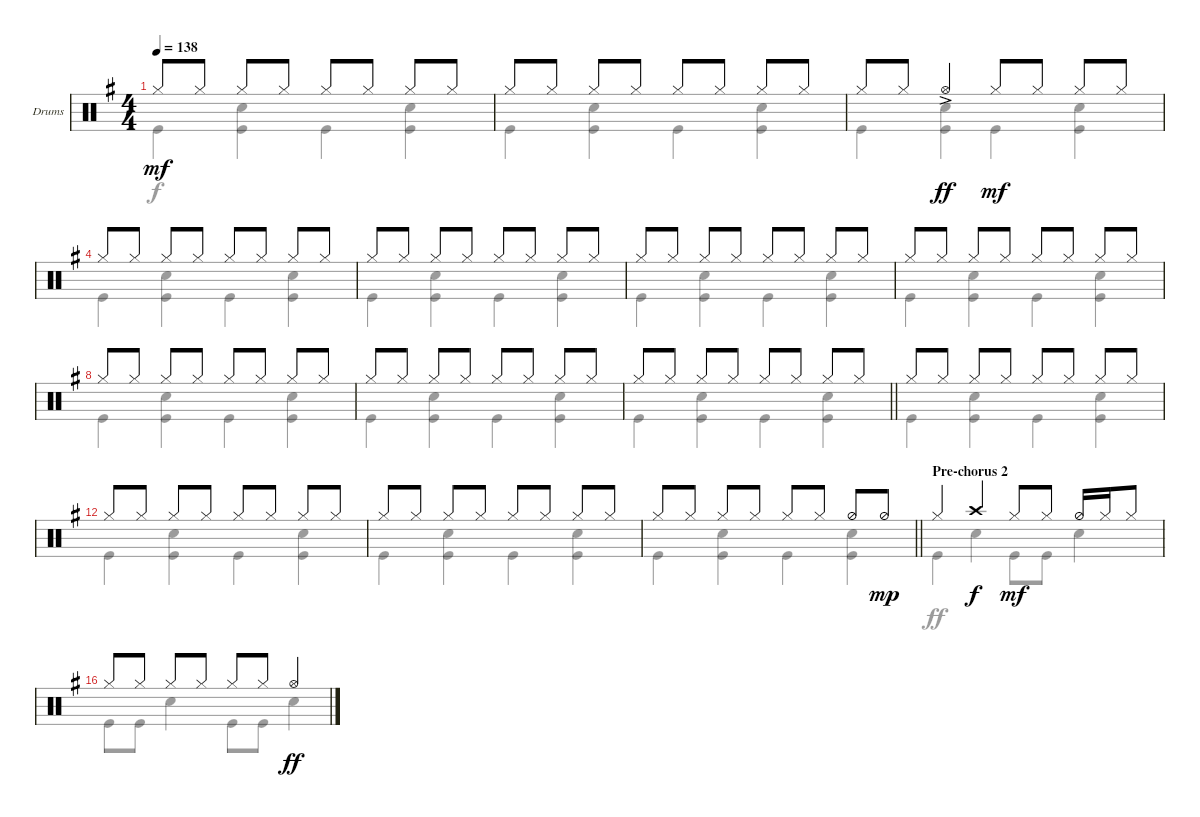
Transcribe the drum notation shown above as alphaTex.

\defaultSystemsLayout 4
\bracketExtendMode groupsimilarinstruments
\useSystemSignSeparator
\multiBarRest
\multiTrackTrackNamePolicy allsystems
\firstSystemTrackNameMode fullname
\firstSystemTrackNameOrientation horizontal
\otherSystemsTrackNameOrientation horizontal
\defaultBarNumberDisplay FirstOfSystem
\track ("Drums" "Dr.") {multiBarRest instrument percussion}
\staff {score}
\articulation defaults
\voice
\ts (4 4)
\tempo 138
\clef neutral
\ks g "Hi-Hat (closed)".8{dy mf} "Hi-Hat (closed)".8 "Hi-Hat (closed)".8 "Hi-Hat (closed)".8 "Hi-Hat (closed)".8 "Hi-Hat (closed)".8 "Hi-Hat (closed)".8 "Hi-Hat (closed)".8
|
"Hi-Hat (closed)".8 "Hi-Hat (closed)".8 "Hi-Hat (closed)".8 "Hi-Hat (closed)".8 "Hi-Hat (closed)".8 "Hi-Hat (closed)".8 "Hi-Hat (closed)".8 "Hi-Hat (closed)".8 |
"Hi-Hat (closed)".8 "Hi-Hat (closed)".8 "Hi-Hat (open)"{ac}.4{dy ff} "Hi-Hat (closed)".8{dy mf} "Hi-Hat (closed)".8 "Hi-Hat (closed)".8 "Hi-Hat (closed)".8 |
"Hi-Hat (closed)".8 "Hi-Hat (closed)".8 "Hi-Hat (closed)".8 "Hi-Hat (closed)".8 "Hi-Hat (closed)".8 "Hi-Hat (closed)".8 "Hi-Hat (closed)".8 "Hi-Hat (closed)".8 |
"Hi-Hat (closed)".8 "Hi-Hat (closed)".8 "Hi-Hat (closed)".8 "Hi-Hat (closed)".8 "Hi-Hat (closed)".8 "Hi-Hat (closed)".8 "Hi-Hat (closed)".8 "Hi-Hat (closed)".8 |
"Hi-Hat (closed)".8 "Hi-Hat (closed)".8 "Hi-Hat (closed)".8 "Hi-Hat (closed)".8 "Hi-Hat (closed)".8 "Hi-Hat (closed)".8 "Hi-Hat (closed)".8 "Hi-Hat (closed)".8 |
"Hi-Hat (closed)".8 "Hi-Hat (closed)".8 "Hi-Hat (closed)".8 "Hi-Hat (closed)".8 "Hi-Hat (closed)".8 "Hi-Hat (closed)".8 "Hi-Hat (closed)".8 "Hi-Hat (closed)".8 |
"Hi-Hat (closed)".8 "Hi-Hat (closed)".8 "Hi-Hat (closed)".8 "Hi-Hat (closed)".8 "Hi-Hat (closed)".8 "Hi-Hat (closed)".8 "Hi-Hat (closed)".8 "Hi-Hat (closed)".8 |
"Hi-Hat (closed)".8 "Hi-Hat (closed)".8 "Hi-Hat (closed)".8 "Hi-Hat (closed)".8 "Hi-Hat (closed)".8 "Hi-Hat (closed)".8 "Hi-Hat (closed)".8 "Hi-Hat (closed)".8 |
\barLineRight lightlight "Hi-Hat (closed)".8 "Hi-Hat (closed)".8 "Hi-Hat (closed)".8 "Hi-Hat (closed)".8 "Hi-Hat (closed)".8 "Hi-Hat (closed)".8 "Hi-Hat (closed)".8 "Hi-Hat (closed)".8
|
"Hi-Hat (closed)".8 "Hi-Hat (closed)".8 "Hi-Hat (closed)".8 "Hi-Hat (closed)".8 "Hi-Hat (closed)".8 "Hi-Hat (closed)".8 "Hi-Hat (closed)".8 "Hi-Hat (closed)".8 |
"Hi-Hat (closed)".8 "Hi-Hat (closed)".8 "Hi-Hat (closed)".8 "Hi-Hat (closed)".8 "Hi-Hat (closed)".8 "Hi-Hat (closed)".8 "Hi-Hat (closed)".8 "Hi-Hat (closed)".8 |
"Hi-Hat (closed)".8 "Hi-Hat (closed)".8 "Hi-Hat (closed)".8 "Hi-Hat (closed)".8 "Hi-Hat (closed)".8 "Hi-Hat (closed)".8 "Hi-Hat (closed)".8 "Hi-Hat (closed)".8 |
\barLineRight lightlight "Hi-Hat (closed)".8 "Hi-Hat (closed)".8 "Hi-Hat (closed)".8 "Hi-Hat (closed)".8 "Hi-Hat (closed)".8 "Hi-Hat (closed)".8 "Hi-Hat (half)".8 "Hi-Hat (half)".8{dy mp}
|
\section ("" "Pre-chorus 2")
"Hi-Hat (closed)".4 "Crash high (hit)".4{dy f} "Hi-Hat (closed)".8{dy mf} "Hi-Hat (closed)".8 "Hi-Hat (half)".16 "Hi-Hat (closed)".16 "Hi-Hat (closed)".8 |
"Hi-Hat (closed)".8 "Hi-Hat (closed)".8 "Hi-Hat (closed)".8 "Hi-Hat (closed)".8 "Hi-Hat (closed)".8 "Hi-Hat (closed)".8 "Hi-Hat (open)".4{dy ff}
\voice
\clef neutral
\ottava regular
\simile none
\ks g "Kick (hit)".4{dy f}
("Kick (hit)" "Snare (hit) 2").4 "Kick (hit)".4 ("Kick (hit)" "Snare (hit) 2").4 |
"Kick (hit)".4 ("Kick (hit)" "Snare (hit) 2").4 "Kick (hit)".4 ("Kick (hit)" "Snare (hit) 2").4 |
"Kick (hit)".4 ("Kick (hit)" "Snare (hit) 2").4 "Kick (hit)".4 ("Kick (hit)" "Snare (hit) 2").4 |
"Kick (hit)".4 ("Kick (hit)" "Snare (hit) 2").4 "Kick (hit)".4 ("Kick (hit)" "Snare (hit) 2").4 |
"Kick (hit)".4 ("Kick (hit)" "Snare (hit) 2").4 "Kick (hit)".4 ("Kick (hit)" "Snare (hit) 2").4 |
"Kick (hit)".4 ("Kick (hit)" "Snare (hit) 2").4 "Kick (hit)".4 ("Kick (hit)" "Snare (hit) 2").4 |
"Kick (hit)".4 ("Kick (hit)" "Snare (hit) 2").4 "Kick (hit)".4 ("Kick (hit)" "Snare (hit) 2").4 |
"Kick (hit)".4 ("Kick (hit)" "Snare (hit) 2").4 "Kick (hit)".4 ("Kick (hit)" "Snare (hit) 2").4 |
"Kick (hit)".4 ("Kick (hit)" "Snare (hit) 2").4 "Kick (hit)".4 ("Kick (hit)" "Snare (hit) 2").4 |
\barLineRight lightlight "Kick (hit)".4
("Kick (hit)" "Snare (hit) 2").4 "Kick (hit)".4 ("Kick (hit)" "Snare (hit) 2").4 |
"Kick (hit)".4 ("Kick (hit)" "Snare (hit) 2").4 "Kick (hit)".4 ("Kick (hit)" "Snare (hit) 2").4 |
"Kick (hit)".4 ("Kick (hit)" "Snare (hit) 2").4 "Kick (hit)".4 ("Kick (hit)" "Snare (hit) 2").4 |
"Kick (hit)".4 ("Kick (hit)" "Snare (hit) 2").4 "Kick (hit)".4 ("Kick (hit)" "Snare (hit) 2").4 |
\barLineRight lightlight "Kick (hit)".4
("Kick (hit)" "Snare (hit) 2").4 "Kick (hit)".4 ("Kick (hit)" "Snare (hit) 2").4 |
"Kick (hit)".4{dy ff} "Snare (hit) 2".4 "Kick (hit)".8 "Kick (hit)".8 "Snare (hit) 2".4 |
"Kick (hit)".8 "Kick (hit)".8 "Snare (hit) 2".4 "Kick (hit)".8 "Kick (hit)".8 "Snare (hit) 2".4
